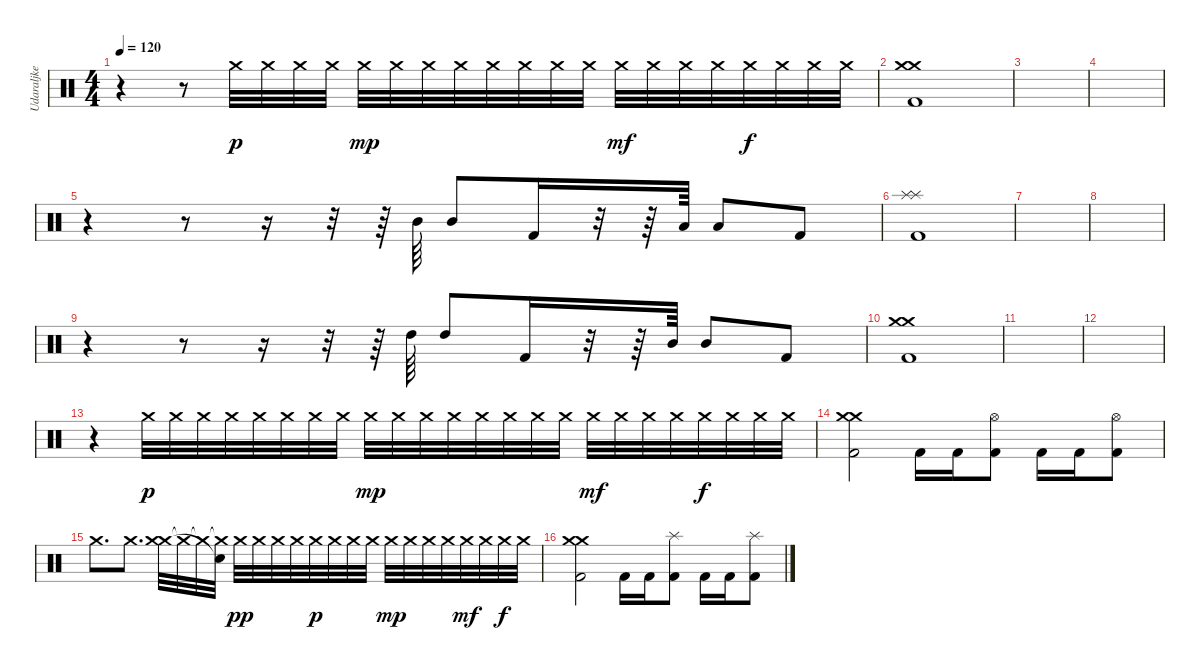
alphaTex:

\track ("Udaraljke" "Udaraljke") {instrument percussion}
\staff {score}
\articulation defaults
\ts (4 4)
\tempo 120
\clef neutral
\ks c
r.4{dy f} r.8 "Crash medium (hit)".32{dy p} "Crash medium (hit)".32 "Crash medium (hit)".32 "Crash medium (hit)".32 "Crash medium (hit)".32{dy mp} "Crash medium (hit)".32 "Crash medium (hit)".32 "Crash medium (hit)".32 "Crash medium (hit)".32 "Crash medium (hit)".32 "Crash medium (hit)".32 "Crash medium (hit)".32 "Crash medium (hit)".32{dy mf} "Crash medium (hit)".32 "Crash medium (hit)".32 "Crash medium (hit)".32 "Crash medium (hit)".32{dy f} "Crash medium (hit)".32 "Crash medium (hit)".32 "Crash medium (hit)".32 |
("Crash medium (hit)" "Crash medium (hit)" "Kick (hit) 2").1 |
|
|
r.4 r.8 r.16 r.32 r.64 "Mid Tom (hit)".64 "Mid Tom (hit)".8 "Kick (hit) 2".16 r.32 r.64 "Low Tom (hit)".64 "Low Tom (hit)".8 "Kick (hit) 2".8 |
("Splash (hit)" "Splash (hit)" "Kick (hit) 2").1 |
|
|
r.4 r.8 r.16 r.32 r.64 "High Tom (hit)".64 "High Tom (hit)".8 "Kick (hit) 2".16 r.32 r.64 "Mid Tom (hit)".64 "Mid Tom (hit)".8 "Kick (hit) 2".8 |
("Crash medium (hit)" "Crash medium (hit)" "Kick (hit) 2").1 |
|
|
r.4 "Crash medium (hit)".32{dy p} "Crash medium (hit)".32 "Crash medium (hit)".32 "Crash medium (hit)".32 "Crash medium (hit)".32 "Crash medium (hit)".32 "Crash medium (hit)".32 "Crash medium (hit)".32 "Crash medium (hit)".32{dy mp} "Crash medium (hit)".32 "Crash medium (hit)".32 "Crash medium (hit)".32 "Crash medium (hit)".32 "Crash medium (hit)".32 "Crash medium (hit)".32 "Crash medium (hit)".32 "Crash medium (hit)".32{dy mf} "Crash medium (hit)".32 "Crash medium (hit)".32 "Crash medium (hit)".32 "Crash medium (hit)".32{dy f} "Crash medium (hit)".32 "Crash medium (hit)".32 "Crash medium (hit)".32 |
("Crash medium (hit)" "Crash medium (hit)" "Kick (hit) 2").2 "Kick (hit) 2".16 "Kick (hit) 2".16 ("Kick (hit) 2" "Hi-Hat (open)").8 "Kick (hit) 2".16 "Kick (hit) 2".16 ("Kick (hit) 2" "Hi-Hat (open)").8 |
"Crash medium (hit)".8{d} "Crash medium (hit)".8{d} ("Crash medium (hit)" "Crash medium (hit)").32 "Crash medium (hit)"{t}.32 "Crash medium (hit)"{t}.32 ("Crash medium (hit)"{t} "Snare (hit)"{t}).32 "Crash medium (hit)".32{dy pp} "Crash medium (hit)".32 "Crash medium (hit)".32 "Crash medium (hit)".32 "Crash medium (hit)".32{dy p} "Crash medium (hit)".32 "Crash medium (hit)".32 "Crash medium (hit)".32 "Crash medium (hit)".32{dy mp} "Crash medium (hit)".32 "Crash medium (hit)".32 "Crash medium (hit)".32 "Crash medium (hit)".32{dy mf} "Crash medium (hit)".32 "Crash medium (hit)".32{dy f} "Crash medium (hit)".32 |
("Crash medium (hit)" "Crash medium (hit)" "Kick (hit) 2").2 "Kick (hit) 2".16 "Kick (hit) 2".16 ("Kick (hit) 2" "Splash (hit)").8 "Kick (hit) 2".16 "Kick (hit) 2".16 ("Kick (hit) 2" "Splash (hit)").8
